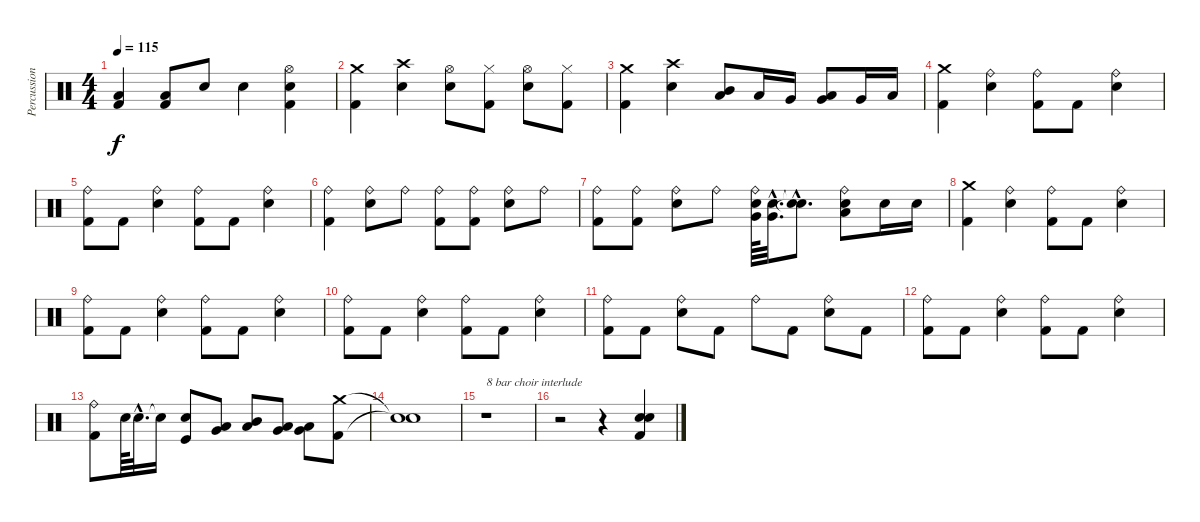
\track ("Percussion" "Percussion") {instrument percussion}
\staff {score}
\articulation defaults
\ts (4 4)
\tempo 115
\clef neutral
\ks c
("Low Floor Tom (hit)" "Kick (hit) 2").4{dy f} ("Low Floor Tom (hit)" "Kick (hit) 2").8 "Metronome (bell)".8 "Metronome (bell)".4 ("Hi-Hat (open)" "Metronome (bell)" "Kick (hit) 2").4 |
("Crash medium (hit)" "Kick (hit) 2").4 ("Crash high (hit)" "Metronome (bell)").4 ("Hi-Hat (open)" "Metronome (bell)").8 ("Hi-Hat (closed)" "Kick (hit) 2").8 ("Hi-Hat (open)" "Metronome (bell)").8 ("Hi-Hat (closed)" "Kick (hit) 2").8 |
("Crash medium (hit)" "Kick (hit) 2").4 ("Crash high (hit)" "Metronome (bell)").4 ("Mid Tom (hit)" "Low Tom (hit)").8 "Low Tom (hit)".16 "Very Low Tom (hit)".16 ("Low Tom (hit)" "Very Low Tom (hit)").8 "Very Low Tom (hit)".16 "Low Floor Tom (hit)".16 |
("Crash medium (hit)" "Kick (hit) 2").4 ("Ride (bell)" "Metronome (bell)").4 ("Ride (bell)" "Kick (hit) 2").8 "Kick (hit) 2".8 ("Ride (bell)" "Metronome (bell)").4 |
("Ride (bell)" "Kick (hit) 2").8 "Kick (hit) 2".8 ("Ride (bell)" "Metronome (bell)").4 ("Ride (bell)" "Kick (hit) 2").8 "Kick (hit) 2".8 ("Ride (bell)" "Metronome (bell)").4 |
("Ride (bell)" "Kick (hit) 2").4 ("Ride (bell)" "Metronome (bell)").8 "Ride (bell)".8 ("Ride (bell)" "Kick (hit) 2").8 ("Ride (bell)" "Kick (hit) 2").8 ("Ride (bell)" "Metronome (bell)").8 "Ride (bell)".8 |
("Ride (bell)" "Kick (hit) 2").8 ("Ride (bell)" "Kick (hit) 2").8 ("Ride (bell)" "Metronome (bell)").8 "Ride (bell)".8 ("Ride (bell)" "Metronome (bell)" "Very Low Tom (hit)").64 ("Metronome (bell)"{hac} "Very Low Tom (hit)"{hac}).32{d} ("Snare (hit)"{hac t} "Snare (hit)"{hac t}).8{d} ("Ride (bell)" "Metronome (bell)" "Low Floor Tom (hit)").8 "Metronome (bell)".16 "Metronome (bell)".16 |
("Crash medium (hit)" "Kick (hit) 2").4 ("Ride (bell)" "Metronome (bell)").4 ("Ride (bell)" "Kick (hit) 2").8 "Kick (hit) 2".8 ("Ride (bell)" "Metronome (bell)").4 |
("Ride (bell)" "Kick (hit) 2").8 "Kick (hit) 2".8 ("Ride (bell)" "Metronome (bell)").4 ("Ride (bell)" "Kick (hit) 2").8 "Kick (hit) 2".8 ("Ride (bell)" "Metronome (bell)").4 |
("Ride (bell)" "Kick (hit) 2").8 "Kick (hit) 2".8 ("Ride (bell)" "Metronome (bell)").4 ("Ride (bell)" "Kick (hit) 2").8 "Kick (hit) 2".8 ("Ride (bell)" "Metronome (bell)").4 |
("Ride (bell)" "Kick (hit) 2").8 "Kick (hit) 2".8 ("Ride (bell)" "Metronome (bell)").8 "Kick (hit) 2".8 "Ride (bell)".8 "Kick (hit) 2".8 ("Ride (bell)" "Metronome (bell)").8 "Kick (hit) 2".8 |
("Ride (bell)" "Kick (hit) 2").8 "Kick (hit) 2".8 ("Ride (bell)" "Metronome (bell)").4 ("Ride (bell)" "Kick (hit) 2").8 "Kick (hit) 2".8 ("Ride (bell)" "Metronome (bell)").4 |
("Ride (bell)" "Kick (hit) 2").8 "Metronome (bell)".64 "Metronome (bell)"{hac}.32{d} "Snare (hit)"{t}.16 ("Kick (hit)" "Metronome (bell)").8 ("Very Low Tom (hit)" "Low Floor Tom (hit)").8 ("Mid Tom (hit)" "Low Tom (hit)").8 ("Low Tom (hit)" "Very Low Tom (hit)").8 ("Very Low Tom (hit)" "Low Floor Tom (hit)").8 ("Crash medium (hit)" "Kick (hit) 2").8 |
("Snare (hit)"{t} "Snare (hit)"{t}).1 |
r.1{txt "8 bar choir interlude"} |
r.2 r.4 ("Metronome (bell)" "Electric Snare (hit)" "Kick (hit) 2").4
